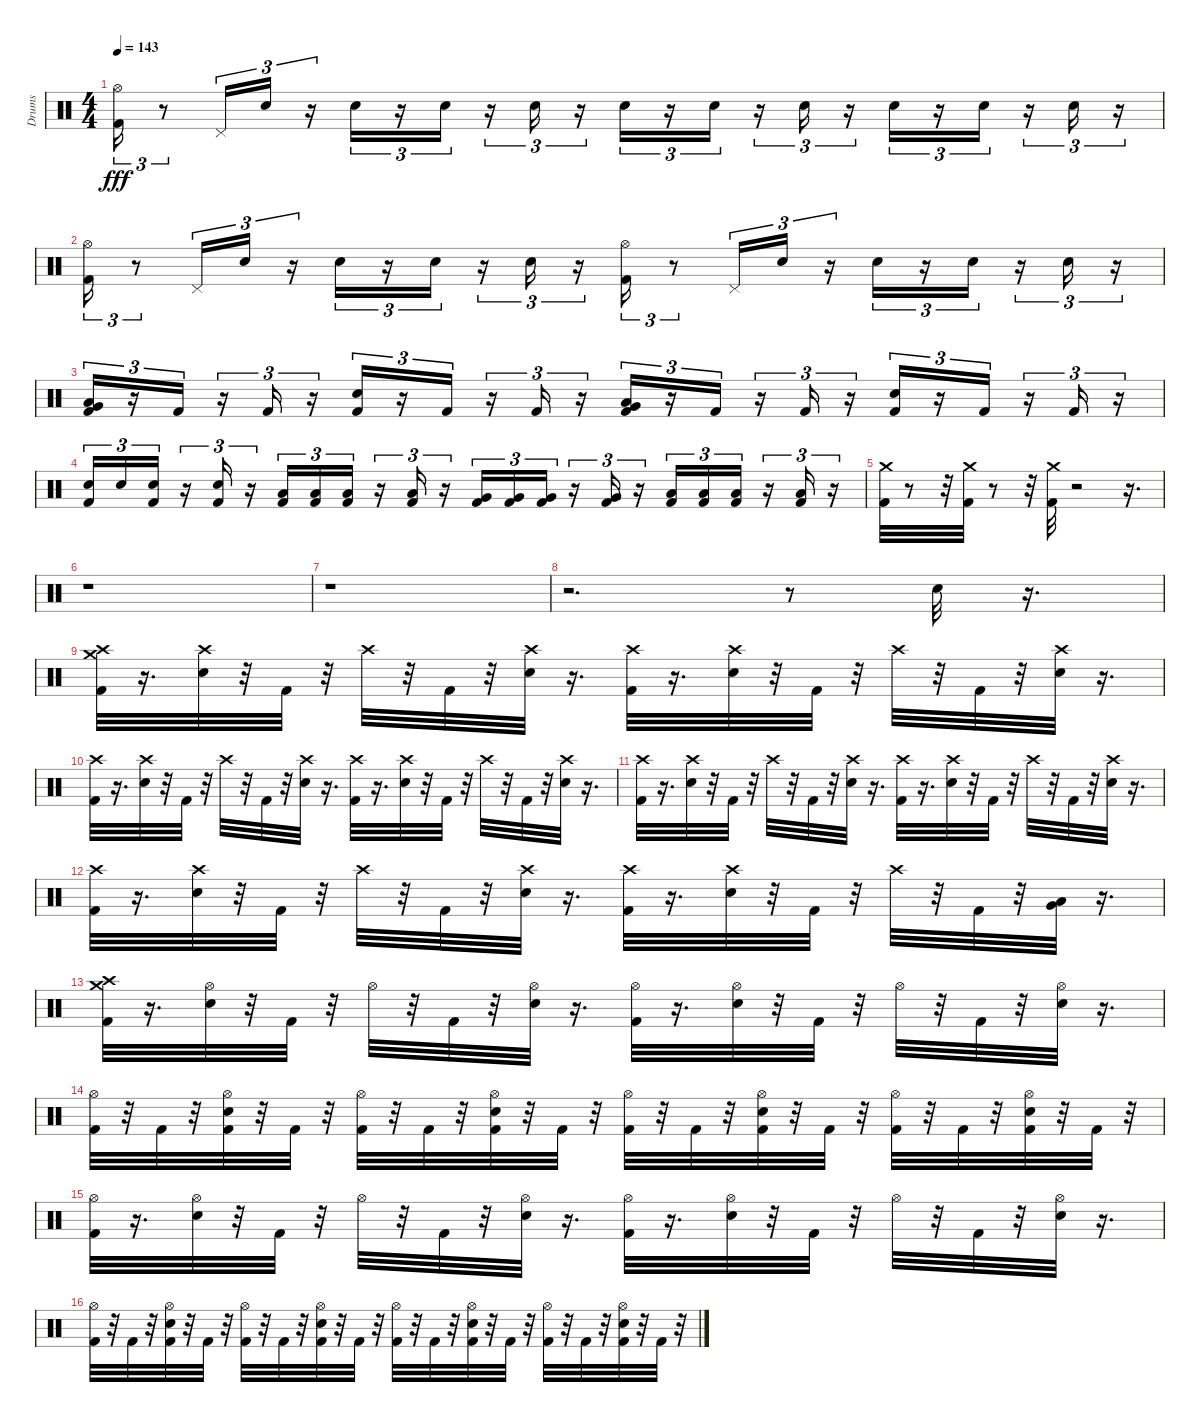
\track ("Drums" "Drums") {instrument percussion}
\staff {score}
\articulation defaults
\ts (4 4)
\tempo 143
\clef neutral
\ks c
("Hi-Hat (open)" "Kick (hit) 2").16{tu (3 2) dy fff} r.8{tu (3 2)} "Pedal Hi-Hat (hit)".16{tu (3 2)} "Snare (hit) 2".16{tu (3 2)} r.16{tu (3 2)} "Snare (hit) 2".16{tu (3 2)} r.16{tu (3 2)} "Snare (hit) 2".16{tu (3 2)} r.16{tu (3 2)} "Snare (hit) 2".16{tu (3 2)} r.16{tu (3 2)} "Snare (hit) 2".16{tu (3 2)} r.16{tu (3 2)} "Snare (hit) 2".16{tu (3 2)} r.16{tu (3 2)} "Snare (hit) 2".16{tu (3 2)} r.16{tu (3 2)} "Snare (hit) 2".16{tu (3 2)} r.16{tu (3 2)} "Snare (hit) 2".16{tu (3 2)} r.16{tu (3 2)} "Snare (hit) 2".16{tu (3 2)} r.16{tu (3 2)} |
("Hi-Hat (open)" "Kick (hit) 2").16{tu (3 2)} r.8{tu (3 2)} "Pedal Hi-Hat (hit)".16{tu (3 2)} "Snare (hit) 2".16{tu (3 2)} r.16{tu (3 2)} "Snare (hit) 2".16{tu (3 2)} r.16{tu (3 2)} "Snare (hit) 2".16{tu (3 2)} r.16{tu (3 2)} "Snare (hit) 2".16{tu (3 2)} r.16{tu (3 2)} ("Hi-Hat (open)" "Kick (hit) 2").16{tu (3 2)} r.8{tu (3 2)} "Pedal Hi-Hat (hit)".16{tu (3 2)} "Snare (hit) 2".16{tu (3 2)} r.16{tu (3 2)} "Snare (hit) 2".16{tu (3 2)} r.16{tu (3 2)} "Snare (hit) 2".16{tu (3 2)} r.16{tu (3 2)} "Snare (hit) 2".16{tu (3 2)} r.16{tu (3 2)} |
("Very Low Tom (hit)" "Low Tom (hit)" "Kick (hit) 2").16{tu (3 2)} r.16{tu (3 2)} "Kick (hit) 2".16{tu (3 2)} r.16{tu (3 2)} "Kick (hit) 2".16{tu (3 2)} r.16{tu (3 2)} ("Snare (hit) 2" "Kick (hit) 2").16{tu (3 2)} r.16{tu (3 2)} "Kick (hit) 2".16{tu (3 2)} r.16{tu (3 2)} "Kick (hit) 2".16{tu (3 2)} r.16{tu (3 2)} ("Low Floor Tom (hit)" "Very Low Tom (hit)" "Kick (hit) 2").16{tu (3 2)} r.16{tu (3 2)} "Kick (hit) 2".16{tu (3 2)} r.16{tu (3 2)} "Kick (hit) 2".16{tu (3 2)} r.16{tu (3 2)} ("Snare (hit) 2" "Kick (hit) 2").16{tu (3 2)} r.16{tu (3 2)} "Kick (hit) 2".16{tu (3 2)} r.16{tu (3 2)} "Kick (hit) 2".16{tu (3 2)} r.16{tu (3 2)} |
("Snare (hit) 2" "Kick (hit) 2").16{tu (3 2)} "Snare (hit) 2".16{tu (3 2)} ("Snare (hit) 2" "Kick (hit) 2").16{tu (3 2)} r.16{tu (3 2)} ("Snare (hit) 2" "Kick (hit) 2").16{tu (3 2)} r.16{tu (3 2)} ("Low Tom (hit)" "Kick (hit) 2").16{tu (3 2)} ("Kick (hit) 2" "Low Tom (hit)").16{tu (3 2)} ("Low Tom (hit)" "Kick (hit) 2").16{tu (3 2)} r.16{tu (3 2)} ("Low Tom (hit)" "Kick (hit) 2").16{tu (3 2)} r.16{tu (3 2)} ("Very Low Tom (hit)" "Kick (hit) 2").16{tu (3 2)} ("Kick (hit) 2" "Very Low Tom (hit)").16{tu (3 2)} ("Very Low Tom (hit)" "Kick (hit) 2").16{tu (3 2)} r.16{tu (3 2)} ("Very Low Tom (hit)" "Kick (hit) 2").16{tu (3 2)} r.16{tu (3 2)} ("Low Floor Tom (hit)" "Kick (hit) 2").16{tu (3 2)} ("Kick (hit) 2" "Low Floor Tom (hit)").16{tu (3 2)} ("Low Floor Tom (hit)" "Kick (hit) 2").16{tu (3 2)} r.16{tu (3 2)} ("Low Floor Tom (hit)" "Kick (hit) 2").16{tu (3 2)} r.16{tu (3 2)} |
("Crash medium (hit)" "Kick (hit) 2").32 r.8 r.32 ("Crash medium (hit)" "Kick (hit) 2").32 r.8 r.32 ("Crash medium (hit)" "Kick (hit) 2").32 r.2 r.16{d} |
r.1 |
r.1 |
r.2{d} r.8 "Snare (hit) 2".32 r.16{d} |
("Crash medium (hit)" "Crash high (hit)" "Kick (hit) 2").32 r.16{d} ("Crash high (hit)" "Snare (hit) 2").32 r.32 "Kick (hit) 2".32 r.32 "Crash high (hit)".32 r.32 "Kick (hit) 2".32 r.32 ("Crash high (hit)" "Snare (hit) 2").32 r.16{d} ("Crash high (hit)" "Kick (hit) 2").32 r.16{d} ("Crash high (hit)" "Snare (hit) 2").32 r.32 "Kick (hit) 2".32 r.32 "Crash high (hit)".32 r.32 "Kick (hit) 2".32 r.32 ("Crash high (hit)" "Snare (hit) 2").32 r.16{d} |
("Kick (hit) 2" "Crash high (hit)").32 r.16{d} ("Snare (hit) 2" "Crash high (hit)").32 r.32 "Kick (hit) 2".32 r.32 "Crash high (hit)".32 r.32 "Kick (hit) 2".32 r.32 ("Snare (hit) 2" "Crash high (hit)").32 r.16{d} ("Kick (hit) 2" "Crash high (hit)").32 r.16{d} ("Snare (hit) 2" "Crash high (hit)").32 r.32 "Kick (hit) 2".32 r.32 "Crash high (hit)".32 r.32 "Kick (hit) 2".32 r.32 ("Snare (hit) 2" "Crash high (hit)").32 r.16{d} |
("Kick (hit) 2" "Crash high (hit)").32 r.16{d} ("Snare (hit) 2" "Crash high (hit)").32 r.32 "Kick (hit) 2".32 r.32 "Crash high (hit)".32 r.32 "Kick (hit) 2".32 r.32 ("Snare (hit) 2" "Crash high (hit)").32 r.16{d} ("Kick (hit) 2" "Crash high (hit)").32 r.16{d} ("Crash high (hit)" "Snare (hit) 2").32 r.32 "Kick (hit) 2".32 r.32 "Crash high (hit)".32 r.32 "Kick (hit) 2".32 r.32 ("Crash high (hit)" "Snare (hit) 2").32 r.16{d} |
("Kick (hit) 2" "Crash high (hit)").32 r.16{d} ("Snare (hit) 2" "Crash high (hit)").32 r.32 "Kick (hit) 2".32 r.32 "Crash high (hit)".32 r.32 "Kick (hit) 2".32 r.32 ("Snare (hit) 2" "Crash high (hit)").32 r.16{d} ("Kick (hit) 2" "Crash high (hit)").32 r.16{d} ("Snare (hit) 2" "Crash high (hit)").32 r.32 "Kick (hit) 2".32 r.32 "Crash high (hit)".32 r.32 "Kick (hit) 2".32 r.32 ("Very Low Tom (hit)" "Low Floor Tom (hit)").32 r.16{d} |
("Crash medium (hit)" "Crash high (hit)" "Kick (hit) 2").32 r.16{d} ("Hi-Hat (open)" "Snare (hit) 2").32 r.32 "Kick (hit) 2".32 r.32 "Hi-Hat (open)".32 r.32 "Kick (hit) 2".32 r.32 ("Hi-Hat (open)" "Snare (hit) 2").32 r.16{d} ("Hi-Hat (open)" "Kick (hit) 2").32 r.16{d} ("Hi-Hat (open)" "Snare (hit) 2").32 r.32 "Kick (hit) 2".32 r.32 "Hi-Hat (open)".32 r.32 "Kick (hit) 2".32 r.32 ("Hi-Hat (open)" "Snare (hit) 2").32 r.16{d} |
("Hi-Hat (open)" "Kick (hit) 2").32 r.32 "Kick (hit) 2".32 r.32 ("Kick (hit) 2" "Hi-Hat (open)" "Snare (hit) 2").32 r.32 "Kick (hit) 2".32 r.32 ("Kick (hit) 2" "Hi-Hat (open)").32 r.32 "Kick (hit) 2".32 r.32 ("Kick (hit) 2" "Hi-Hat (open)" "Snare (hit) 2").32 r.32 "Kick (hit) 2".32 r.32 ("Hi-Hat (open)" "Kick (hit) 2").32 r.32 "Kick (hit) 2".32 r.32 ("Kick (hit) 2" "Hi-Hat (open)" "Snare (hit) 2").32 r.32 "Kick (hit) 2".32 r.32 ("Kick (hit) 2" "Hi-Hat (open)").32 r.32 "Kick (hit) 2".32 r.32 ("Kick (hit) 2" "Hi-Hat (open)" "Snare (hit) 2").32 r.32 "Kick (hit) 2".32 r.32 |
("Hi-Hat (open)" "Kick (hit) 2").32 r.16{d} ("Hi-Hat (open)" "Snare (hit) 2").32 r.32 "Kick (hit) 2".32 r.32 "Hi-Hat (open)".32 r.32 "Kick (hit) 2".32 r.32 ("Hi-Hat (open)" "Snare (hit) 2").32 r.16{d} ("Hi-Hat (open)" "Kick (hit) 2").32 r.16{d} ("Hi-Hat (open)" "Snare (hit) 2").32 r.32 "Kick (hit) 2".32 r.32 "Hi-Hat (open)".32 r.32 "Kick (hit) 2".32 r.32 ("Hi-Hat (open)" "Snare (hit) 2").32 r.16{d} |
("Hi-Hat (open)" "Kick (hit) 2").32 r.32 "Kick (hit) 2".32 r.32 ("Kick (hit) 2" "Hi-Hat (open)" "Snare (hit) 2").32 r.32 "Kick (hit) 2".32 r.32 ("Kick (hit) 2" "Hi-Hat (open)").32 r.32 "Kick (hit) 2".32 r.32 ("Kick (hit) 2" "Hi-Hat (open)" "Snare (hit) 2").32 r.32 "Kick (hit) 2".32 r.32 ("Hi-Hat (open)" "Kick (hit) 2").32 r.32 "Kick (hit) 2".32 r.32 ("Kick (hit) 2" "Hi-Hat (open)" "Snare (hit) 2").32 r.32 "Kick (hit) 2".32 r.32 ("Kick (hit) 2" "Hi-Hat (open)").32 r.32 "Kick (hit) 2".32 r.32 ("Snare (hit) 2" "Hi-Hat (open)" "Kick (hit) 2").32 r.32 "Kick (hit) 2".32 r.32
